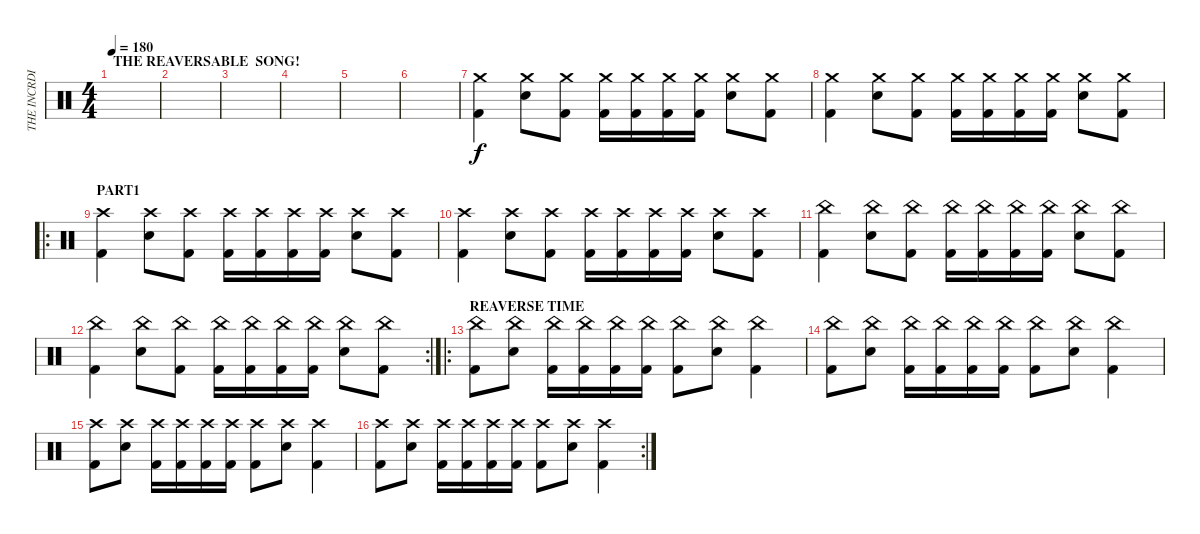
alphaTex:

\track ("THE INCRDIBLE DRUM" "THE INCRDI") {instrument percussion}
\staff {score}
\articulation defaults
\ts (4 4)
\section ("" "THE REAVERSABLE  SONG!")
\tempo 180
\clef neutral
\ks c
|
|
|
|
|
|
("Crash medium (hit)" "Kick (hit) 2").4 ("Crash medium (hit)" "Electric Snare (hit)").8 ("Crash medium (hit)" "Kick (hit) 2").8 ("Crash medium (hit)" "Kick (hit) 2").16 ("Crash medium (hit)" "Kick (hit) 2").16 ("Crash medium (hit)" "Kick (hit) 2").16 ("Crash medium (hit)" "Kick (hit) 2").16 ("Crash medium (hit)" "Electric Snare (hit)").8 ("Crash medium (hit)" "Kick (hit) 2").8 |
("Crash medium (hit)" "Kick (hit) 2").4 ("Crash medium (hit)" "Electric Snare (hit)").8 ("Crash medium (hit)" "Kick (hit) 2").8 ("Crash medium (hit)" "Kick (hit) 2").16 ("Crash medium (hit)" "Kick (hit) 2").16 ("Crash medium (hit)" "Kick (hit) 2").16 ("Crash medium (hit)" "Kick (hit) 2").16 ("Crash medium (hit)" "Electric Snare (hit)").8 ("Crash medium (hit)" "Kick (hit) 2").8 |
\ro
\section ("" "PART1")
("Crash high (hit)" "Kick (hit) 2").4 ("Crash high (hit)" "Electric Snare (hit)").8 ("Crash high (hit)" "Kick (hit) 2").8 ("Crash high (hit)" "Kick (hit) 2").16 ("Crash high (hit)" "Kick (hit) 2").16 ("Crash high (hit)" "Kick (hit) 2").16 ("Crash high (hit)" "Kick (hit) 2").16 ("Crash high (hit)" "Electric Snare (hit)").8 ("Crash high (hit)" "Kick (hit) 2").8 |
("Crash high (hit)" "Kick (hit) 2").4 ("Crash high (hit)" "Electric Snare (hit)").8 ("Crash high (hit)" "Kick (hit) 2").8 ("Crash high (hit)" "Kick (hit) 2").16 ("Crash high (hit)" "Kick (hit) 2").16 ("Crash high (hit)" "Kick (hit) 2").16 ("Crash high (hit)" "Kick (hit) 2").16 ("Crash high (hit)" "Electric Snare (hit)").8 ("Crash high (hit)" "Kick (hit) 2").8 |
("China (hit)" "Kick (hit) 2").4 ("China (hit)" "Electric Snare (hit)").8 ("China (hit)" "Kick (hit) 2").8 ("China (hit)" "Kick (hit) 2").16 ("China (hit)" "Kick (hit) 2").16 ("China (hit)" "Kick (hit) 2").16 ("China (hit)" "Kick (hit) 2").16 ("China (hit)" "Electric Snare (hit)").8 ("China (hit)" "Kick (hit) 2").8 |
\rc 2
("China (hit)" "Kick (hit) 2").4 ("China (hit)" "Electric Snare (hit)").8 ("China (hit)" "Kick (hit) 2").8 ("China (hit)" "Kick (hit) 2").16 ("China (hit)" "Kick (hit) 2").16 ("China (hit)" "Kick (hit) 2").16 ("China (hit)" "Kick (hit) 2").16 ("China (hit)" "Electric Snare (hit)").8 ("China (hit)" "Kick (hit) 2").8 |
\ro
\section ("" "REAVERSE TIME")
("China (hit)" "Kick (hit) 2").8 ("China (hit)" "Electric Snare (hit)").8 ("China (hit)" "Kick (hit) 2").16 ("China (hit)" "Kick (hit) 2").16 ("China (hit)" "Kick (hit) 2").16 ("China (hit)" "Kick (hit) 2").16 ("China (hit)" "Kick (hit) 2").8 ("China (hit)" "Electric Snare (hit)").8 ("China (hit)" "Kick (hit) 2").4 |
("China (hit)" "Kick (hit) 2").8 ("China (hit)" "Electric Snare (hit)").8 ("China (hit)" "Kick (hit) 2").16 ("China (hit)" "Kick (hit) 2").16 ("China (hit)" "Kick (hit) 2").16 ("China (hit)" "Kick (hit) 2").16 ("China (hit)" "Kick (hit) 2").8 ("China (hit)" "Electric Snare (hit)").8 ("China (hit)" "Kick (hit) 2").4 |
("Crash high (hit)" "Kick (hit) 2").8 ("Crash high (hit)" "Electric Snare (hit)").8 ("Crash high (hit)" "Kick (hit) 2").16 ("Crash high (hit)" "Kick (hit) 2").16 ("Crash high (hit)" "Kick (hit) 2").16 ("Crash high (hit)" "Kick (hit) 2").16 ("Crash high (hit)" "Kick (hit) 2").8 ("Crash high (hit)" "Electric Snare (hit)").8 ("Crash high (hit)" "Kick (hit) 2").4 |
\rc 2
("Crash high (hit)" "Kick (hit) 2").8 ("Crash high (hit)" "Electric Snare (hit)").8 ("Crash high (hit)" "Kick (hit) 2").16 ("Crash high (hit)" "Kick (hit) 2").16 ("Crash high (hit)" "Kick (hit) 2").16 ("Crash high (hit)" "Kick (hit) 2").16 ("Crash high (hit)" "Kick (hit) 2").8 ("Crash high (hit)" "Electric Snare (hit)").8 ("Crash high (hit)" "Kick (hit) 2").4
